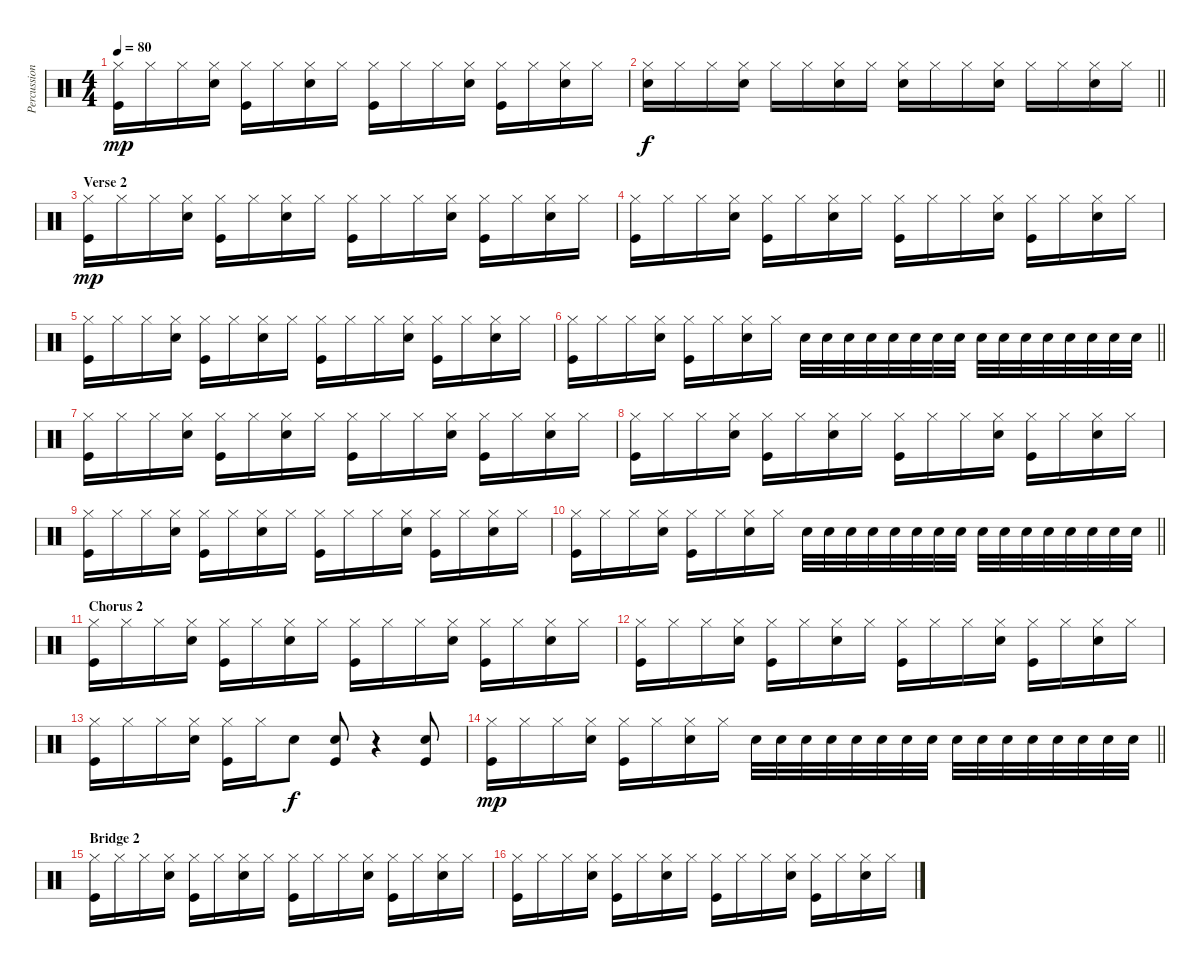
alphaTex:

\track ("Percussion" "Percussion") {instrument percussion}
\staff {score}
\articulation defaults
\ts (4 4)
\tempo 80
\clef neutral
\ks c
("Kick (hit)" "Hi-Hat (closed)").16{dy mp} "Hi-Hat (closed)".16 "Hi-Hat (closed)".16 ("Snare (hit) 2" "Hi-Hat (closed)").16 ("Kick (hit)" "Hi-Hat (closed)").16 "Hi-Hat (closed)".16 ("Snare (hit) 2" "Hi-Hat (closed)").16 "Hi-Hat (closed)".16 ("Kick (hit)" "Hi-Hat (closed)").16 "Hi-Hat (closed)".16 "Hi-Hat (closed)".16 ("Snare (hit) 2" "Hi-Hat (closed)").16 ("Kick (hit)" "Hi-Hat (closed)").16 "Hi-Hat (closed)".16 ("Snare (hit) 2" "Hi-Hat (closed)").16 "Hi-Hat (closed)".16 |
\barLineRight lightlight
("Hi-Hat (closed)" "Snare (hit) 2").16{dy f} "Hi-Hat (closed)".16 "Hi-Hat (closed)".16 ("Hi-Hat (closed)" "Snare (hit) 2").16 "Hi-Hat (closed)".16 "Hi-Hat (closed)".16 ("Hi-Hat (closed)" "Snare (hit) 2").16 "Hi-Hat (closed)".16 ("Hi-Hat (closed)" "Snare (hit) 2").16 "Hi-Hat (closed)".16 "Hi-Hat (closed)".16 ("Hi-Hat (closed)" "Snare (hit) 2").16 "Hi-Hat (closed)".16 "Hi-Hat (closed)".16 ("Hi-Hat (closed)" "Snare (hit) 2").16 "Hi-Hat (closed)".16 |
\section ("" "Verse 2")
("Kick (hit)" "Hi-Hat (closed)").16{dy mp} "Hi-Hat (closed)".16 "Hi-Hat (closed)".16 ("Snare (hit) 2" "Hi-Hat (closed)").16 ("Kick (hit)" "Hi-Hat (closed)").16 "Hi-Hat (closed)".16 ("Snare (hit) 2" "Hi-Hat (closed)").16 "Hi-Hat (closed)".16 ("Kick (hit)" "Hi-Hat (closed)").16 "Hi-Hat (closed)".16 "Hi-Hat (closed)".16 ("Snare (hit) 2" "Hi-Hat (closed)").16 ("Kick (hit)" "Hi-Hat (closed)").16 "Hi-Hat (closed)".16 ("Snare (hit) 2" "Hi-Hat (closed)").16 "Hi-Hat (closed)".16 |
("Kick (hit)" "Hi-Hat (closed)").16 "Hi-Hat (closed)".16 "Hi-Hat (closed)".16 ("Snare (hit) 2" "Hi-Hat (closed)").16 ("Kick (hit)" "Hi-Hat (closed)").16 "Hi-Hat (closed)".16 ("Snare (hit) 2" "Hi-Hat (closed)").16 "Hi-Hat (closed)".16 ("Kick (hit)" "Hi-Hat (closed)").16 "Hi-Hat (closed)".16 "Hi-Hat (closed)".16 ("Snare (hit) 2" "Hi-Hat (closed)").16 ("Kick (hit)" "Hi-Hat (closed)").16 "Hi-Hat (closed)".16 ("Snare (hit) 2" "Hi-Hat (closed)").16 "Hi-Hat (closed)".16 |
("Kick (hit)" "Hi-Hat (closed)").16 "Hi-Hat (closed)".16 "Hi-Hat (closed)".16 ("Snare (hit) 2" "Hi-Hat (closed)").16 ("Kick (hit)" "Hi-Hat (closed)").16 "Hi-Hat (closed)".16 ("Snare (hit) 2" "Hi-Hat (closed)").16 "Hi-Hat (closed)".16 ("Kick (hit)" "Hi-Hat (closed)").16 "Hi-Hat (closed)".16 "Hi-Hat (closed)".16 ("Snare (hit) 2" "Hi-Hat (closed)").16 ("Kick (hit)" "Hi-Hat (closed)").16 "Hi-Hat (closed)".16 ("Snare (hit) 2" "Hi-Hat (closed)").16 "Hi-Hat (closed)".16 |
\barLineRight lightlight
("Kick (hit)" "Hi-Hat (closed)").16 "Hi-Hat (closed)".16 "Hi-Hat (closed)".16 ("Snare (hit) 2" "Hi-Hat (closed)").16 ("Kick (hit)" "Hi-Hat (closed)").16 "Hi-Hat (closed)".16 ("Snare (hit) 2" "Hi-Hat (closed)").16 "Hi-Hat (closed)".16 "Snare (hit) 2".32 "Snare (hit) 2".32 "Snare (hit) 2".32 "Snare (hit) 2".32 "Snare (hit) 2".32 "Snare (hit) 2".32 "Snare (hit) 2".32 "Snare (hit) 2".32 "Snare (hit) 2".32 "Snare (hit) 2".32 "Snare (hit) 2".32 "Snare (hit) 2".32 "Snare (hit) 2".32 "Snare (hit) 2".32 "Snare (hit) 2".32 "Snare (hit) 2".32 |
("Kick (hit)" "Hi-Hat (closed)").16 "Hi-Hat (closed)".16 "Hi-Hat (closed)".16 ("Snare (hit) 2" "Hi-Hat (closed)").16 ("Kick (hit)" "Hi-Hat (closed)").16 "Hi-Hat (closed)".16 ("Snare (hit) 2" "Hi-Hat (closed)").16 "Hi-Hat (closed)".16 ("Kick (hit)" "Hi-Hat (closed)").16 "Hi-Hat (closed)".16 "Hi-Hat (closed)".16 ("Snare (hit) 2" "Hi-Hat (closed)").16 ("Kick (hit)" "Hi-Hat (closed)").16 "Hi-Hat (closed)".16 ("Snare (hit) 2" "Hi-Hat (closed)").16 "Hi-Hat (closed)".16 |
("Kick (hit)" "Hi-Hat (closed)").16 "Hi-Hat (closed)".16 "Hi-Hat (closed)".16 ("Snare (hit) 2" "Hi-Hat (closed)").16 ("Kick (hit)" "Hi-Hat (closed)").16 "Hi-Hat (closed)".16 ("Snare (hit) 2" "Hi-Hat (closed)").16 "Hi-Hat (closed)".16 ("Kick (hit)" "Hi-Hat (closed)").16 "Hi-Hat (closed)".16 "Hi-Hat (closed)".16 ("Snare (hit) 2" "Hi-Hat (closed)").16 ("Kick (hit)" "Hi-Hat (closed)").16 "Hi-Hat (closed)".16 ("Snare (hit) 2" "Hi-Hat (closed)").16 "Hi-Hat (closed)".16 |
("Kick (hit)" "Hi-Hat (closed)").16 "Hi-Hat (closed)".16 "Hi-Hat (closed)".16 ("Snare (hit) 2" "Hi-Hat (closed)").16 ("Kick (hit)" "Hi-Hat (closed)").16 "Hi-Hat (closed)".16 ("Snare (hit) 2" "Hi-Hat (closed)").16 "Hi-Hat (closed)".16 ("Kick (hit)" "Hi-Hat (closed)").16 "Hi-Hat (closed)".16 "Hi-Hat (closed)".16 ("Snare (hit) 2" "Hi-Hat (closed)").16 ("Kick (hit)" "Hi-Hat (closed)").16 "Hi-Hat (closed)".16 ("Snare (hit) 2" "Hi-Hat (closed)").16 "Hi-Hat (closed)".16 |
\barLineRight lightlight
("Kick (hit)" "Hi-Hat (closed)").16 "Hi-Hat (closed)".16 "Hi-Hat (closed)".16 ("Snare (hit) 2" "Hi-Hat (closed)").16 ("Kick (hit)" "Hi-Hat (closed)").16 "Hi-Hat (closed)".16 ("Snare (hit) 2" "Hi-Hat (closed)").16 "Hi-Hat (closed)".16 "Snare (hit) 2".32 "Snare (hit) 2".32 "Snare (hit) 2".32 "Snare (hit) 2".32 "Snare (hit) 2".32 "Snare (hit) 2".32 "Snare (hit) 2".32 "Snare (hit) 2".32 "Snare (hit) 2".32 "Snare (hit) 2".32 "Snare (hit) 2".32 "Snare (hit) 2".32 "Snare (hit) 2".32 "Snare (hit) 2".32 "Snare (hit) 2".32 "Snare (hit) 2".32 |
\section ("" "Chorus 2")
("Kick (hit)" "Hi-Hat (closed)").16 "Hi-Hat (closed)".16 "Hi-Hat (closed)".16 ("Snare (hit) 2" "Hi-Hat (closed)").16 ("Kick (hit)" "Hi-Hat (closed)").16 "Hi-Hat (closed)".16 ("Snare (hit) 2" "Hi-Hat (closed)").16 "Hi-Hat (closed)".16 ("Kick (hit)" "Hi-Hat (closed)").16 "Hi-Hat (closed)".16 "Hi-Hat (closed)".16 ("Snare (hit) 2" "Hi-Hat (closed)").16 ("Kick (hit)" "Hi-Hat (closed)").16 "Hi-Hat (closed)".16 ("Snare (hit) 2" "Hi-Hat (closed)").16 "Hi-Hat (closed)".16 |
("Kick (hit)" "Hi-Hat (closed)").16 "Hi-Hat (closed)".16 "Hi-Hat (closed)".16 ("Snare (hit) 2" "Hi-Hat (closed)").16 ("Kick (hit)" "Hi-Hat (closed)").16 "Hi-Hat (closed)".16 ("Snare (hit) 2" "Hi-Hat (closed)").16 "Hi-Hat (closed)".16 ("Kick (hit)" "Hi-Hat (closed)").16 "Hi-Hat (closed)".16 "Hi-Hat (closed)".16 ("Snare (hit) 2" "Hi-Hat (closed)").16 ("Kick (hit)" "Hi-Hat (closed)").16 "Hi-Hat (closed)".16 ("Snare (hit) 2" "Hi-Hat (closed)").16 "Hi-Hat (closed)".16 |
("Kick (hit)" "Hi-Hat (closed)").16 "Hi-Hat (closed)".16 "Hi-Hat (closed)".16 ("Snare (hit) 2" "Hi-Hat (closed)").16 ("Kick (hit)" "Hi-Hat (closed)").16 "Hi-Hat (closed)".16 "Snare (hit) 2".8{dy f} ("Kick (hit)" "Snare (hit) 2").8 r.4 ("Snare (hit) 2" "Kick (hit)").8 |
\barLineRight lightlight
("Kick (hit)" "Hi-Hat (closed)").16{dy mp} "Hi-Hat (closed)".16 "Hi-Hat (closed)".16 ("Snare (hit) 2" "Hi-Hat (closed)").16 ("Kick (hit)" "Hi-Hat (closed)").16 "Hi-Hat (closed)".16 ("Snare (hit) 2" "Hi-Hat (closed)").16 "Hi-Hat (closed)".16 "Snare (hit) 2".32 "Snare (hit) 2".32 "Snare (hit) 2".32 "Snare (hit) 2".32 "Snare (hit) 2".32 "Snare (hit) 2".32 "Snare (hit) 2".32 "Snare (hit) 2".32 "Snare (hit) 2".32 "Snare (hit) 2".32 "Snare (hit) 2".32 "Snare (hit) 2".32 "Snare (hit) 2".32 "Snare (hit) 2".32 "Snare (hit) 2".32 "Snare (hit) 2".32 |
\section ("" "Bridge 2")
("Kick (hit)" "Hi-Hat (closed)").16 "Hi-Hat (closed)".16 "Hi-Hat (closed)".16 ("Snare (hit) 2" "Hi-Hat (closed)").16 ("Kick (hit)" "Hi-Hat (closed)").16 "Hi-Hat (closed)".16 ("Snare (hit) 2" "Hi-Hat (closed)").16 "Hi-Hat (closed)".16 ("Kick (hit)" "Hi-Hat (closed)").16 "Hi-Hat (closed)".16 "Hi-Hat (closed)".16 ("Snare (hit) 2" "Hi-Hat (closed)").16 ("Kick (hit)" "Hi-Hat (closed)").16 "Hi-Hat (closed)".16 ("Snare (hit) 2" "Hi-Hat (closed)").16 "Hi-Hat (closed)".16 |
("Kick (hit)" "Hi-Hat (closed)").16 "Hi-Hat (closed)".16 "Hi-Hat (closed)".16 ("Snare (hit) 2" "Hi-Hat (closed)").16 ("Kick (hit)" "Hi-Hat (closed)").16 "Hi-Hat (closed)".16 ("Snare (hit) 2" "Hi-Hat (closed)").16 "Hi-Hat (closed)".16 ("Kick (hit)" "Hi-Hat (closed)").16 "Hi-Hat (closed)".16 "Hi-Hat (closed)".16 ("Snare (hit) 2" "Hi-Hat (closed)").16 ("Kick (hit)" "Hi-Hat (closed)").16 "Hi-Hat (closed)".16 ("Snare (hit) 2" "Hi-Hat (closed)").16 "Hi-Hat (closed)".16
